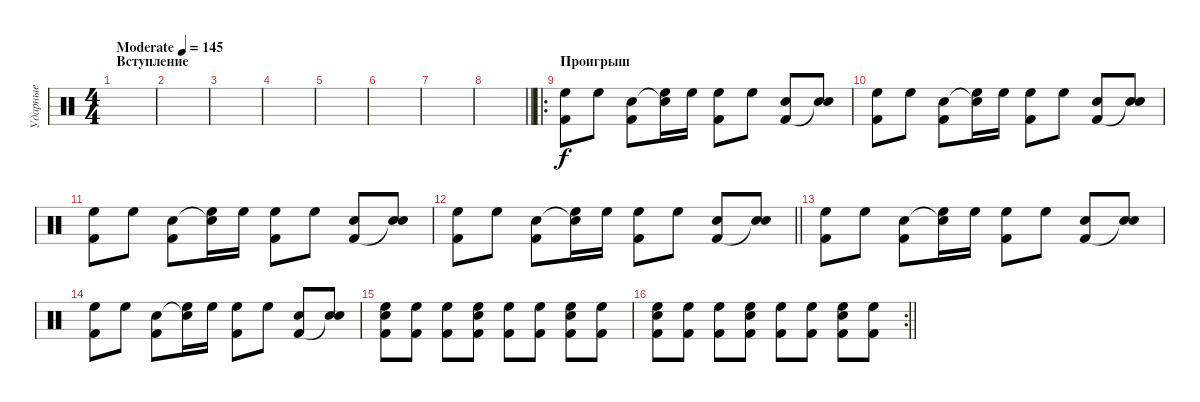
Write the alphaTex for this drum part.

\track ("Ударные" "Ударные") {instrument percussion}
\staff {score}
\articulation defaults
\ts (4 4)
\section ("" "Вступление")
\tempo (145 "Moderate")
\clef neutral
\ks c
|
|
|
|
|
|
|
\barLineRight lightlight
|
\ro
\section ("" "Проигрыш")
("Kick (hit) 2" "High Floor Tom (hit)").8 "High Floor Tom (hit)".8 ("Kick (hit) 2" "Snare (hit) 2").8 ("High Floor Tom (hit)" "Snare (hit)"{t}).16 "High Floor Tom (hit)".16 ("Kick (hit) 2" "High Floor Tom (hit)").8 "High Floor Tom (hit)".8 ("Kick (hit) 2" "Snare (hit) 2").8 ("Snare (hit)"{t} "Snare (hit) 2").8 |
("Kick (hit) 2" "High Floor Tom (hit)").8 "High Floor Tom (hit)".8 ("Kick (hit) 2" "Snare (hit) 2").8 ("High Floor Tom (hit)" "Snare (hit)"{t}).16 "High Floor Tom (hit)".16 ("Kick (hit) 2" "High Floor Tom (hit)").8 "High Floor Tom (hit)".8 ("Kick (hit) 2" "Snare (hit) 2").8 ("Snare (hit)"{t} "Snare (hit) 2").8 |
("Kick (hit) 2" "High Floor Tom (hit)").8 "High Floor Tom (hit)".8 ("Kick (hit) 2" "Snare (hit) 2").8 ("High Floor Tom (hit)" "Snare (hit)"{t}).16 "High Floor Tom (hit)".16 ("Kick (hit) 2" "High Floor Tom (hit)").8 "High Floor Tom (hit)".8 ("Kick (hit) 2" "Snare (hit) 2").8 ("Snare (hit)"{t} "Snare (hit) 2").8 |
\barLineRight lightlight
("Kick (hit) 2" "High Floor Tom (hit)").8 "High Floor Tom (hit)".8 ("Kick (hit) 2" "Snare (hit) 2").8 ("High Floor Tom (hit)" "Snare (hit)"{t}).16 "High Floor Tom (hit)".16 ("Kick (hit) 2" "High Floor Tom (hit)").8 "High Floor Tom (hit)".8 ("Kick (hit) 2" "Snare (hit) 2").8 ("Snare (hit)"{t} "Snare (hit) 2").8 |
("Kick (hit) 2" "High Floor Tom (hit)").8 "High Floor Tom (hit)".8 ("Kick (hit) 2" "Snare (hit) 2").8 ("High Floor Tom (hit)" "Snare (hit)"{t}).16 "High Floor Tom (hit)".16 ("Kick (hit) 2" "High Floor Tom (hit)").8 "High Floor Tom (hit)".8 ("Kick (hit) 2" "Snare (hit) 2").8 ("Snare (hit)"{t} "Snare (hit) 2").8 |
("Kick (hit) 2" "High Floor Tom (hit)").8 "High Floor Tom (hit)".8 ("Kick (hit) 2" "Snare (hit) 2").8 ("High Floor Tom (hit)" "Snare (hit)"{t}).16 "High Floor Tom (hit)".16 ("Kick (hit) 2" "High Floor Tom (hit)").8 "High Floor Tom (hit)".8 ("Kick (hit) 2" "Snare (hit) 2").8 ("Snare (hit)"{t} "Snare (hit) 2").8 |
("High Floor Tom (hit)" "Snare (hit) 2" "Kick (hit) 2").8 ("High Floor Tom (hit)" "Kick (hit) 2").8 ("High Floor Tom (hit)" "Kick (hit) 2").8 ("High Floor Tom (hit)" "Snare (hit) 2" "Kick (hit) 2").8 ("High Floor Tom (hit)" "Kick (hit) 2").8 ("High Floor Tom (hit)" "Kick (hit) 2").8 ("High Floor Tom (hit)" "Snare (hit) 2" "Kick (hit) 2").8 ("High Floor Tom (hit)" "Kick (hit) 2").8 |
\rc 2
\barLineRight lightlight
("High Floor Tom (hit)" "Snare (hit) 2" "Kick (hit) 2").8 ("High Floor Tom (hit)" "Kick (hit) 2").8 ("High Floor Tom (hit)" "Kick (hit) 2").8 ("High Floor Tom (hit)" "Snare (hit) 2" "Kick (hit) 2").8 ("High Floor Tom (hit)" "Kick (hit) 2").8 ("High Floor Tom (hit)" "Kick (hit) 2").8 ("High Floor Tom (hit)" "Snare (hit) 2" "Kick (hit) 2").8 ("High Floor Tom (hit)" "Kick (hit) 2").8
